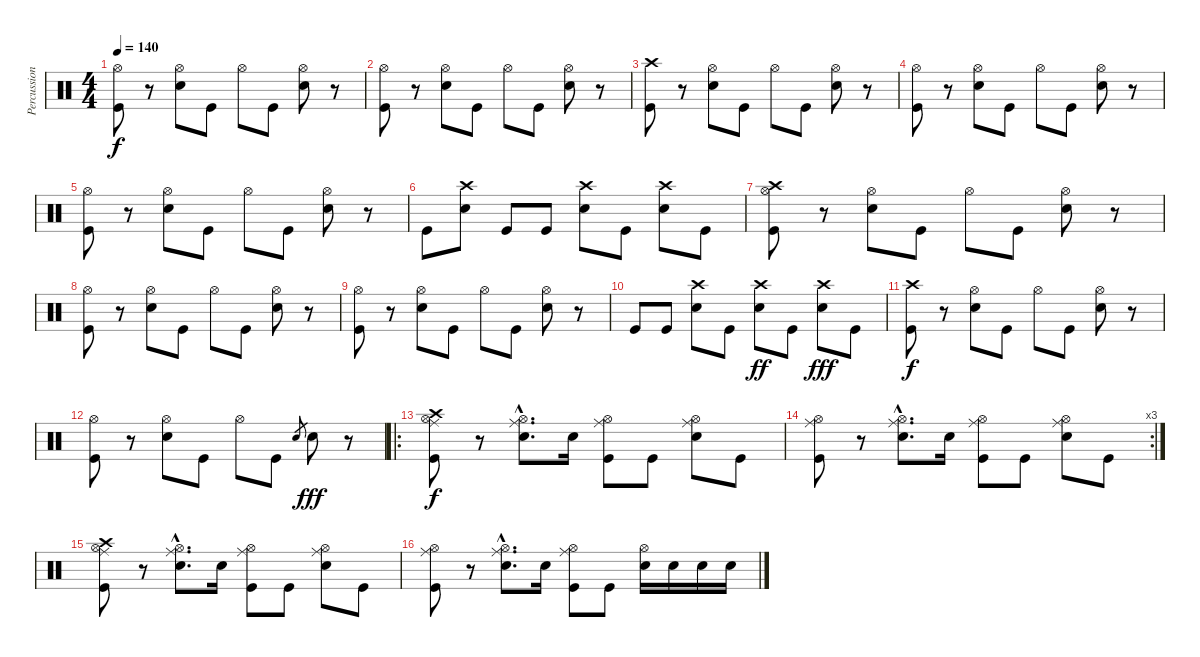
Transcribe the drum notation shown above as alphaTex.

\track ("Percussion" "Percussion") {instrument percussion}
\staff {score}
\articulation defaults
\ts (4 4)
\tempo 140
\clef neutral
\ks c
("Kick (hit)" "Hi-Hat (open)").8{dy f} r.8 ("Snare (hit) 2" "Hi-Hat (open)").8 "Kick (hit)".8 "Hi-Hat (open)".8 "Kick (hit)".8 ("Snare (hit) 2" "Hi-Hat (open)").8 r.8 |
("Kick (hit)" "Hi-Hat (open)").8 r.8 ("Snare (hit) 2" "Hi-Hat (open)").8 "Kick (hit)".8 "Hi-Hat (open)".8 "Kick (hit)".8 ("Snare (hit) 2" "Hi-Hat (open)").8 r.8 |
("Kick (hit)" "Crash high (hit)").8 r.8 ("Snare (hit) 2" "Hi-Hat (open)").8 "Kick (hit)".8 "Hi-Hat (open)".8 "Kick (hit)".8 ("Snare (hit) 2" "Hi-Hat (open)").8 r.8 |
("Kick (hit)" "Hi-Hat (open)").8 r.8 ("Snare (hit) 2" "Hi-Hat (open)").8 "Kick (hit)".8 "Hi-Hat (open)".8 "Kick (hit)".8 ("Snare (hit) 2" "Hi-Hat (open)").8 r.8 |
("Kick (hit)" "Hi-Hat (open)").8 r.8 ("Snare (hit) 2" "Hi-Hat (open)").8 "Kick (hit)".8 "Hi-Hat (open)".8 "Kick (hit)".8 ("Snare (hit) 2" "Hi-Hat (open)").8 r.8 |
"Kick (hit)".8 ("Snare (hit) 2" "Crash high (hit)").8 "Kick (hit)".8 "Kick (hit)".8 ("Snare (hit) 2" "Crash high (hit)").8 "Kick (hit)".8 ("Snare (hit) 2" "Crash high (hit)").8 "Kick (hit)".8 |
("Kick (hit)" "Hi-Hat (open)" "Crash high (hit)").8 r.8 ("Snare (hit) 2" "Hi-Hat (open)").8 "Kick (hit)".8 "Hi-Hat (open)".8 "Kick (hit)".8 ("Snare (hit) 2" "Hi-Hat (open)").8 r.8 |
("Kick (hit)" "Hi-Hat (open)").8 r.8 ("Snare (hit) 2" "Hi-Hat (open)").8 "Kick (hit)".8 "Hi-Hat (open)".8 "Kick (hit)".8 ("Snare (hit) 2" "Hi-Hat (open)").8 r.8 |
("Kick (hit)" "Hi-Hat (open)").8 r.8 ("Snare (hit) 2" "Hi-Hat (open)").8 "Kick (hit)".8 "Hi-Hat (open)".8 "Kick (hit)".8 ("Snare (hit) 2" "Hi-Hat (open)").8 r.8 |
"Kick (hit)".8 "Kick (hit)".8 ("Snare (hit) 2" "Crash high (hit)").8 "Kick (hit)".8 ("Snare (hit) 2" "Crash high (hit)").8{dy ff} "Kick (hit)".8 ("Snare (hit) 2" "Crash high (hit)").8{dy fff} "Kick (hit)".8 |
("Kick (hit)" "Crash high (hit)").8{dy f} r.8 ("Snare (hit) 2" "Hi-Hat (open)").8 "Kick (hit)".8 "Hi-Hat (open)".8 "Kick (hit)".8 ("Snare (hit) 2" "Hi-Hat (open)").8 r.8 |
("Kick (hit)" "Hi-Hat (open)").8 r.8 ("Snare (hit) 2" "Hi-Hat (open)").8 "Kick (hit)".8 "Hi-Hat (open)".8 "Kick (hit)".8 "Snare (hit) 2".8{gr} "Snare (hit) 2".8{dy fff} r.8 |
\ro
("Kick (hit)" "Ride (middle)" "Hi-Hat (open)" "Crash high (hit)").8{dy f} r.8 ("Snare (hit) 2"{hac} "Ride (middle)"{hac} "Hi-Hat (open)"{hac}).8{d} "Snare (hit) 2".16 ("Kick (hit)" "Ride (middle)" "Hi-Hat (open)").8 "Kick (hit)".8 ("Snare (hit) 2" "Ride (middle)" "Hi-Hat (open)").8 "Kick (hit)".8 |
\rc 3
("Kick (hit)" "Ride (middle)" "Hi-Hat (open)").8 r.8 ("Snare (hit) 2"{hac} "Ride (middle)"{hac} "Hi-Hat (open)"{hac}).8{d} "Snare (hit) 2".16 ("Kick (hit)" "Ride (middle)" "Hi-Hat (open)").8 "Kick (hit)".8 ("Snare (hit) 2" "Ride (middle)" "Hi-Hat (open)").8 "Kick (hit)".8 |
("Kick (hit)" "Ride (middle)" "Hi-Hat (open)" "Crash high (hit)").8 r.8 ("Snare (hit) 2"{hac} "Ride (middle)"{hac} "Hi-Hat (open)"{hac}).8{d} "Snare (hit) 2".16 ("Kick (hit)" "Ride (middle)" "Hi-Hat (open)").8 "Kick (hit)".8 ("Snare (hit) 2" "Ride (middle)" "Hi-Hat (open)").8 "Kick (hit)".8 |
("Kick (hit)" "Ride (middle)" "Hi-Hat (open)").8 r.8 ("Snare (hit) 2"{hac} "Ride (middle)"{hac} "Hi-Hat (open)"{hac}).8{d} "Snare (hit) 2".16 ("Kick (hit)" "Ride (middle)" "Hi-Hat (open)").8 "Kick (hit)".8 ("Snare (hit) 2" "Hi-Hat (open)").16 "Snare (hit) 2".16 "Snare (hit) 2".16 "Snare (hit) 2".16
